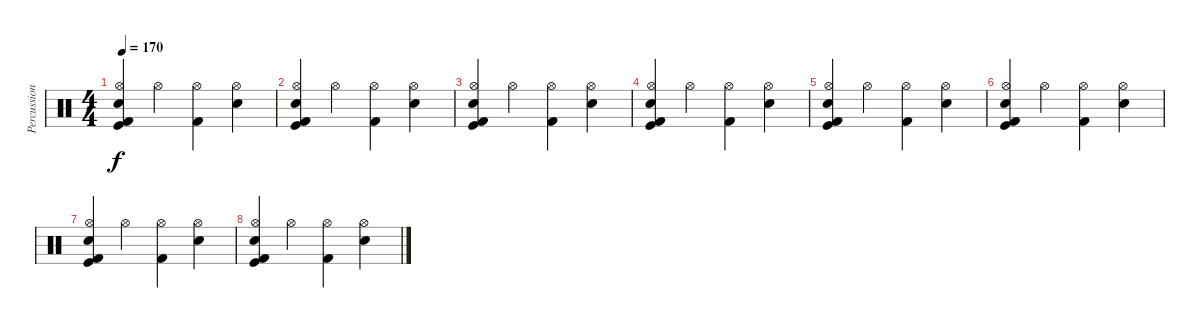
\track ("Percussion" "Percussion") {instrument percussion}
\staff {score}
\articulation defaults
\ts (4 4)
\tempo 170
\clef neutral
\ks c
("Kick (hit) 2" "Hi-Hat (open)" "Kick (hit)" "Snare (hit) 2").4{dy f} "Hi-Hat (open)".4 ("Kick (hit) 2" "Hi-Hat (open)").4 ("Electric Snare (hit)" "Hi-Hat (open)").4 |
("Kick (hit) 2" "Hi-Hat (open)" "Kick (hit)" "Snare (hit) 2").4 "Hi-Hat (open)".4 ("Kick (hit) 2" "Hi-Hat (open)").4 ("Electric Snare (hit)" "Hi-Hat (open)").4 |
("Kick (hit) 2" "Hi-Hat (open)" "Kick (hit)" "Snare (hit) 2").4 "Hi-Hat (open)".4 ("Kick (hit) 2" "Hi-Hat (open)").4 ("Electric Snare (hit)" "Hi-Hat (open)").4 |
("Kick (hit) 2" "Hi-Hat (open)" "Kick (hit)" "Snare (hit) 2").4 "Hi-Hat (open)".4 ("Kick (hit) 2" "Hi-Hat (open)").4 ("Electric Snare (hit)" "Hi-Hat (open)").4 |
("Kick (hit) 2" "Hi-Hat (open)" "Kick (hit)" "Snare (hit) 2").4 "Hi-Hat (open)".4 ("Kick (hit) 2" "Hi-Hat (open)").4 ("Electric Snare (hit)" "Hi-Hat (open)").4 |
("Kick (hit) 2" "Hi-Hat (open)" "Kick (hit)" "Snare (hit) 2").4 "Hi-Hat (open)".4 ("Kick (hit) 2" "Hi-Hat (open)").4 ("Electric Snare (hit)" "Hi-Hat (open)").4 |
("Kick (hit) 2" "Hi-Hat (open)" "Kick (hit)" "Snare (hit) 2").4 "Hi-Hat (open)".4 ("Kick (hit) 2" "Hi-Hat (open)").4 ("Electric Snare (hit)" "Hi-Hat (open)").4 |
("Kick (hit) 2" "Hi-Hat (open)" "Kick (hit)" "Snare (hit) 2").4 "Hi-Hat (open)".4 ("Kick (hit) 2" "Hi-Hat (open)").4 ("Electric Snare (hit)" "Hi-Hat (open)").4
